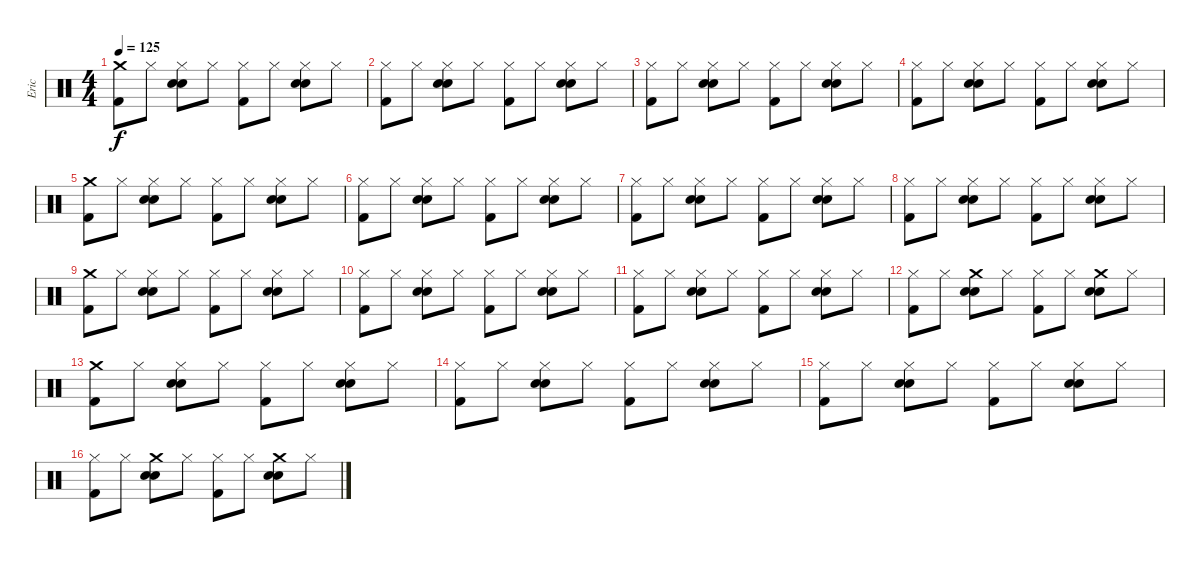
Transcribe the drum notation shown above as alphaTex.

\track ("Eric" "Eric") {instrument percussion}
\staff {score}
\articulation defaults
\ts (4 4)
\tempo 125
\clef neutral
\ks c
("Crash medium (hit)" "Kick (hit) 2").8{dy f} "Hi-Hat (closed)".8 ("Hi-Hat (closed)" "Electric Snare (hit)" "Snare (hit) 2").8 "Hi-Hat (closed)".8 ("Hi-Hat (closed)" "Kick (hit) 2").8 "Hi-Hat (closed)".8 ("Hi-Hat (closed)" "Snare (hit) 2" "Electric Snare (hit)").8 "Hi-Hat (closed)".8 |
("Hi-Hat (closed)" "Kick (hit) 2").8 "Hi-Hat (closed)".8 ("Hi-Hat (closed)" "Electric Snare (hit)" "Snare (hit) 2").8 "Hi-Hat (closed)".8 ("Hi-Hat (closed)" "Kick (hit) 2").8 "Hi-Hat (closed)".8 ("Hi-Hat (closed)" "Snare (hit) 2" "Electric Snare (hit)").8 "Hi-Hat (closed)".8 |
("Hi-Hat (closed)" "Kick (hit) 2").8 "Hi-Hat (closed)".8 ("Hi-Hat (closed)" "Electric Snare (hit)" "Snare (hit) 2").8 "Hi-Hat (closed)".8 ("Hi-Hat (closed)" "Kick (hit) 2").8 "Hi-Hat (closed)".8 ("Hi-Hat (closed)" "Snare (hit) 2" "Electric Snare (hit)").8 "Hi-Hat (closed)".8 |
("Hi-Hat (closed)" "Kick (hit) 2").8 "Hi-Hat (closed)".8 ("Hi-Hat (closed)" "Electric Snare (hit)" "Snare (hit) 2").8 "Hi-Hat (closed)".8 ("Hi-Hat (closed)" "Kick (hit) 2").8 "Hi-Hat (closed)".8 ("Hi-Hat (closed)" "Snare (hit) 2" "Electric Snare (hit)").8 "Hi-Hat (closed)".8 |
("Crash medium (hit)" "Kick (hit) 2").8 "Hi-Hat (closed)".8 ("Hi-Hat (closed)" "Electric Snare (hit)" "Snare (hit) 2").8 "Hi-Hat (closed)".8 ("Hi-Hat (closed)" "Kick (hit) 2").8 "Hi-Hat (closed)".8 ("Hi-Hat (closed)" "Snare (hit) 2" "Electric Snare (hit)").8 "Hi-Hat (closed)".8 |
("Hi-Hat (closed)" "Kick (hit) 2").8 "Hi-Hat (closed)".8 ("Hi-Hat (closed)" "Electric Snare (hit)" "Snare (hit) 2").8 "Hi-Hat (closed)".8 ("Hi-Hat (closed)" "Kick (hit) 2").8 "Hi-Hat (closed)".8 ("Hi-Hat (closed)" "Snare (hit) 2" "Electric Snare (hit)").8 "Hi-Hat (closed)".8 |
("Hi-Hat (closed)" "Kick (hit) 2").8 "Hi-Hat (closed)".8 ("Hi-Hat (closed)" "Electric Snare (hit)" "Snare (hit) 2").8 "Hi-Hat (closed)".8 ("Hi-Hat (closed)" "Kick (hit) 2").8 "Hi-Hat (closed)".8 ("Hi-Hat (closed)" "Snare (hit) 2" "Electric Snare (hit)").8 "Hi-Hat (closed)".8 |
("Hi-Hat (closed)" "Kick (hit) 2").8 "Hi-Hat (closed)".8 ("Hi-Hat (closed)" "Electric Snare (hit)" "Snare (hit) 2").8 "Hi-Hat (closed)".8 ("Hi-Hat (closed)" "Kick (hit) 2").8 "Hi-Hat (closed)".8 ("Hi-Hat (closed)" "Snare (hit) 2" "Electric Snare (hit)").8 "Hi-Hat (closed)".8 |
("Crash medium (hit)" "Kick (hit) 2").8 "Hi-Hat (closed)".8 ("Hi-Hat (closed)" "Electric Snare (hit)" "Snare (hit) 2").8 "Hi-Hat (closed)".8 ("Hi-Hat (closed)" "Kick (hit) 2").8 "Hi-Hat (closed)".8 ("Hi-Hat (closed)" "Snare (hit) 2" "Electric Snare (hit)").8 "Hi-Hat (closed)".8 |
("Hi-Hat (closed)" "Kick (hit) 2").8 "Hi-Hat (closed)".8 ("Hi-Hat (closed)" "Electric Snare (hit)" "Snare (hit) 2").8 "Hi-Hat (closed)".8 ("Hi-Hat (closed)" "Kick (hit) 2").8 "Hi-Hat (closed)".8 ("Hi-Hat (closed)" "Snare (hit) 2" "Electric Snare (hit)").8 "Hi-Hat (closed)".8 |
("Hi-Hat (closed)" "Kick (hit) 2").8 "Hi-Hat (closed)".8 ("Hi-Hat (closed)" "Electric Snare (hit)" "Snare (hit) 2").8 "Hi-Hat (closed)".8 ("Hi-Hat (closed)" "Kick (hit) 2").8 "Hi-Hat (closed)".8 ("Hi-Hat (closed)" "Snare (hit) 2" "Electric Snare (hit)").8 "Hi-Hat (closed)".8 |
("Hi-Hat (closed)" "Kick (hit) 2").8 "Hi-Hat (closed)".8 ("Crash medium (hit)" "Electric Snare (hit)" "Snare (hit) 2").8 "Hi-Hat (closed)".8 ("Hi-Hat (closed)" "Kick (hit) 2").8 "Hi-Hat (closed)".8 ("Crash medium (hit)" "Snare (hit) 2" "Electric Snare (hit)").8 "Hi-Hat (closed)".8 |
("Crash medium (hit)" "Kick (hit) 2").8 "Hi-Hat (closed)".8 ("Hi-Hat (closed)" "Electric Snare (hit)" "Snare (hit) 2").8 "Hi-Hat (closed)".8 ("Hi-Hat (closed)" "Kick (hit) 2").8 "Hi-Hat (closed)".8 ("Hi-Hat (closed)" "Snare (hit) 2" "Electric Snare (hit)").8 "Hi-Hat (closed)".8 |
("Hi-Hat (closed)" "Kick (hit) 2").8 "Hi-Hat (closed)".8 ("Hi-Hat (closed)" "Electric Snare (hit)" "Snare (hit) 2").8 "Hi-Hat (closed)".8 ("Hi-Hat (closed)" "Kick (hit) 2").8 "Hi-Hat (closed)".8 ("Hi-Hat (closed)" "Snare (hit) 2" "Electric Snare (hit)").8 "Hi-Hat (closed)".8 |
("Hi-Hat (closed)" "Kick (hit) 2").8 "Hi-Hat (closed)".8 ("Hi-Hat (closed)" "Electric Snare (hit)" "Snare (hit) 2").8 "Hi-Hat (closed)".8 ("Hi-Hat (closed)" "Kick (hit) 2").8 "Hi-Hat (closed)".8 ("Hi-Hat (closed)" "Snare (hit) 2" "Electric Snare (hit)").8 "Hi-Hat (closed)".8 |
("Hi-Hat (closed)" "Kick (hit) 2").8 "Hi-Hat (closed)".8 ("Crash medium (hit)" "Electric Snare (hit)" "Snare (hit) 2").8 "Hi-Hat (closed)".8 ("Hi-Hat (closed)" "Kick (hit) 2").8 "Hi-Hat (closed)".8 ("Crash medium (hit)" "Snare (hit) 2" "Electric Snare (hit)").8 "Hi-Hat (closed)".8
